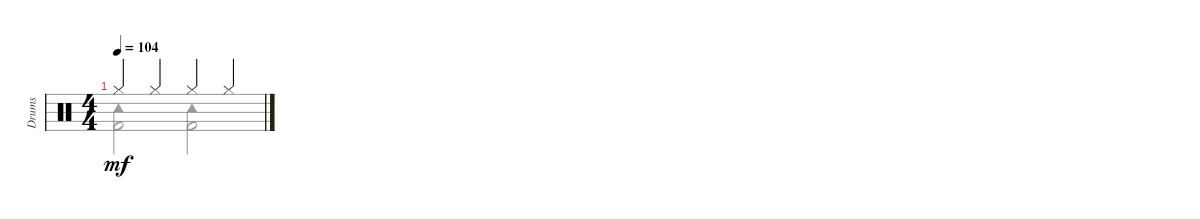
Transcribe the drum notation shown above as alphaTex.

\track ("Drums" "Drums") {instrument percussion}
\staff {score}
\articulation defaults
\voice
\ts (4 4)
\tempo 104
\clef neutral
\ks c "Hi-Hat (closed)".4{dy mf} "Hi-Hat (closed)".4 "Hi-Hat (closed)".4 "Hi-Hat (closed)".4
|
|
\voice
\clef neutral
\ks c
("Tambourine (hit)" "Kick (hit) 2").2{dy mf} ("Tambourine (hit)" "Kick (hit) 2").2 |
|
